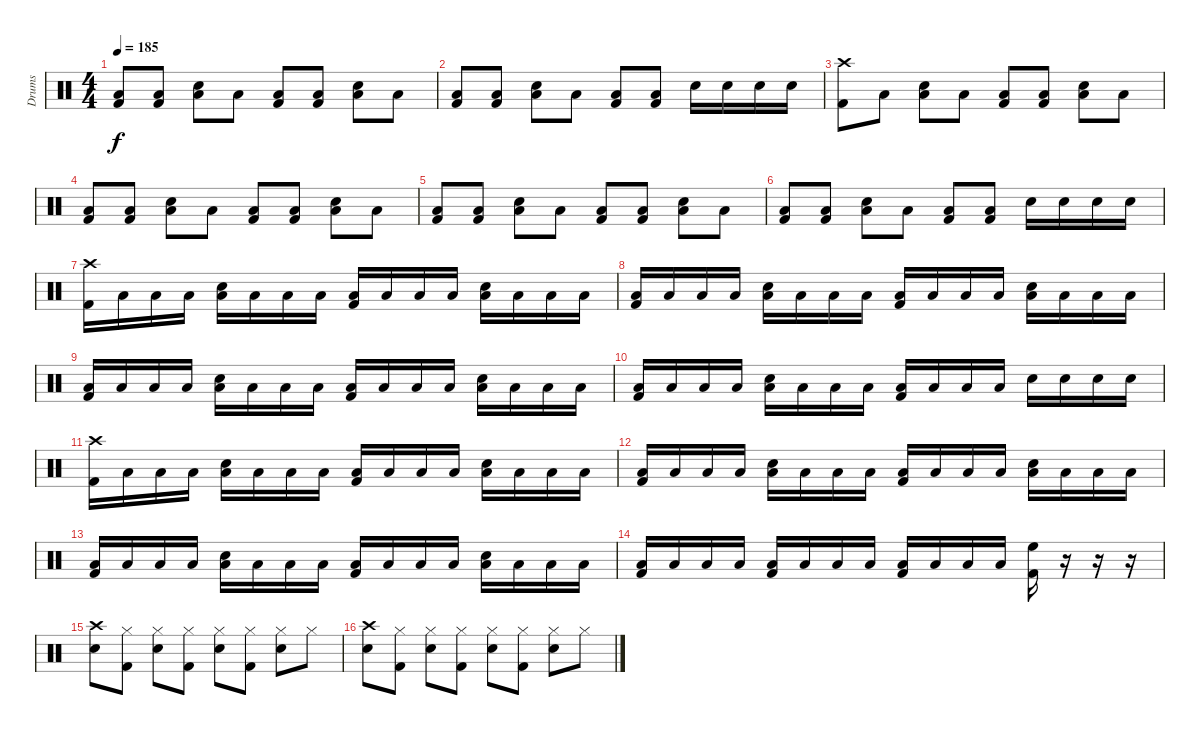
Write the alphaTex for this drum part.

\track ("Drums" "Drums") {instrument percussion}
\staff {score}
\articulation defaults
\ts (4 4)
\tempo 185
\clef neutral
\ks c
("Low Tom (hit)" "Kick (hit) 2").8{dy f} ("Low Tom (hit)" "Kick (hit) 2").8 ("Low Tom (hit)" "Snare (hit) 2").8 "Low Tom (hit)".8 ("Low Tom (hit)" "Kick (hit) 2").8 ("Low Tom (hit)" "Kick (hit) 2").8 ("Low Tom (hit)" "Snare (hit) 2").8 "Low Tom (hit)".8 |
("Low Tom (hit)" "Kick (hit) 2").8 ("Low Tom (hit)" "Kick (hit) 2").8 ("Low Tom (hit)" "Snare (hit) 2").8 "Low Tom (hit)".8 ("Low Tom (hit)" "Kick (hit) 2").8 ("Low Tom (hit)" "Kick (hit) 2").8 "Snare (hit) 2".16 "Snare (hit) 2".16 "Snare (hit) 2".16 "Snare (hit) 2".16 |
("Crash high (hit)" "Kick (hit) 2").8 "Low Tom (hit)".8 ("Low Tom (hit)" "Snare (hit) 2").8 "Low Tom (hit)".8 ("Low Tom (hit)" "Kick (hit) 2").8 ("Low Tom (hit)" "Kick (hit) 2").8 ("Low Tom (hit)" "Snare (hit) 2").8 "Low Tom (hit)".8 |
("Low Tom (hit)" "Kick (hit) 2").8 ("Low Tom (hit)" "Kick (hit) 2").8 ("Low Tom (hit)" "Snare (hit) 2").8 "Low Tom (hit)".8 ("Low Tom (hit)" "Kick (hit) 2").8 ("Low Tom (hit)" "Kick (hit) 2").8 ("Low Tom (hit)" "Snare (hit) 2").8 "Low Tom (hit)".8 |
("Low Tom (hit)" "Kick (hit) 2").8 ("Low Tom (hit)" "Kick (hit) 2").8 ("Low Tom (hit)" "Snare (hit) 2").8 "Low Tom (hit)".8 ("Low Tom (hit)" "Kick (hit) 2").8 ("Low Tom (hit)" "Kick (hit) 2").8 ("Low Tom (hit)" "Snare (hit) 2").8 "Low Tom (hit)".8 |
("Low Tom (hit)" "Kick (hit) 2").8 ("Low Tom (hit)" "Kick (hit) 2").8 ("Low Tom (hit)" "Snare (hit) 2").8 "Low Tom (hit)".8 ("Low Tom (hit)" "Kick (hit) 2").8 ("Low Tom (hit)" "Kick (hit) 2").8 "Snare (hit) 2".16 "Snare (hit) 2".16 "Snare (hit) 2".16 "Snare (hit) 2".16 |
("Crash high (hit)" "Kick (hit) 2").16 "Low Tom (hit)".16 "Low Tom (hit)".16 "Low Tom (hit)".16 ("Low Tom (hit)" "Snare (hit) 2").16 "Low Tom (hit)".16 "Low Tom (hit)".16 "Low Tom (hit)".16 ("Low Tom (hit)" "Kick (hit) 2").16 "Low Tom (hit)".16 "Low Tom (hit)".16 "Low Tom (hit)".16 ("Low Tom (hit)" "Snare (hit) 2").16 "Low Tom (hit)".16 "Low Tom (hit)".16 "Low Tom (hit)".16 |
("Low Tom (hit)" "Kick (hit) 2").16 "Low Tom (hit)".16 "Low Tom (hit)".16 "Low Tom (hit)".16 ("Low Tom (hit)" "Snare (hit) 2").16 "Low Tom (hit)".16 "Low Tom (hit)".16 "Low Tom (hit)".16 ("Low Tom (hit)" "Kick (hit) 2").16 "Low Tom (hit)".16 "Low Tom (hit)".16 "Low Tom (hit)".16 ("Low Tom (hit)" "Snare (hit) 2").16 "Low Tom (hit)".16 "Low Tom (hit)".16 "Low Tom (hit)".16 |
("Low Tom (hit)" "Kick (hit) 2").16 "Low Tom (hit)".16 "Low Tom (hit)".16 "Low Tom (hit)".16 ("Low Tom (hit)" "Snare (hit) 2").16 "Low Tom (hit)".16 "Low Tom (hit)".16 "Low Tom (hit)".16 ("Low Tom (hit)" "Kick (hit) 2").16 "Low Tom (hit)".16 "Low Tom (hit)".16 "Low Tom (hit)".16 ("Low Tom (hit)" "Snare (hit) 2").16 "Low Tom (hit)".16 "Low Tom (hit)".16 "Low Tom (hit)".16 |
("Low Tom (hit)" "Kick (hit) 2").16 "Low Tom (hit)".16 "Low Tom (hit)".16 "Low Tom (hit)".16 ("Low Tom (hit)" "Snare (hit) 2").16 "Low Tom (hit)".16 "Low Tom (hit)".16 "Low Tom (hit)".16 ("Low Tom (hit)" "Kick (hit) 2").16 "Low Tom (hit)".16 "Low Tom (hit)".16 "Low Tom (hit)".16 "Snare (hit) 2".16 "Snare (hit) 2".16 "Snare (hit) 2".16 "Snare (hit) 2".16 |
("Crash high (hit)" "Kick (hit) 2").16 "Low Tom (hit)".16 "Low Tom (hit)".16 "Low Tom (hit)".16 ("Low Tom (hit)" "Snare (hit) 2").16 "Low Tom (hit)".16 "Low Tom (hit)".16 "Low Tom (hit)".16 ("Low Tom (hit)" "Kick (hit) 2").16 "Low Tom (hit)".16 "Low Tom (hit)".16 "Low Tom (hit)".16 ("Low Tom (hit)" "Snare (hit) 2").16 "Low Tom (hit)".16 "Low Tom (hit)".16 "Low Tom (hit)".16 |
("Low Tom (hit)" "Kick (hit) 2").16 "Low Tom (hit)".16 "Low Tom (hit)".16 "Low Tom (hit)".16 ("Low Tom (hit)" "Snare (hit) 2").16 "Low Tom (hit)".16 "Low Tom (hit)".16 "Low Tom (hit)".16 ("Low Tom (hit)" "Kick (hit) 2").16 "Low Tom (hit)".16 "Low Tom (hit)".16 "Low Tom (hit)".16 ("Low Tom (hit)" "Snare (hit) 2").16 "Low Tom (hit)".16 "Low Tom (hit)".16 "Low Tom (hit)".16 |
("Low Tom (hit)" "Kick (hit) 2").16 "Low Tom (hit)".16 "Low Tom (hit)".16 "Low Tom (hit)".16 ("Low Tom (hit)" "Snare (hit) 2").16 "Low Tom (hit)".16 "Low Tom (hit)".16 "Low Tom (hit)".16 ("Low Tom (hit)" "Kick (hit) 2").16 "Low Tom (hit)".16 "Low Tom (hit)".16 "Low Tom (hit)".16 ("Low Tom (hit)" "Snare (hit) 2").16 "Low Tom (hit)".16 "Low Tom (hit)".16 "Low Tom (hit)".16 |
("Low Tom (hit)" "Kick (hit) 2").16 "Low Tom (hit)".16 "Low Tom (hit)".16 "Low Tom (hit)".16 ("Low Tom (hit)" "Kick (hit) 2").16 "Low Tom (hit)".16 "Low Tom (hit)".16 "Low Tom (hit)".16 ("Low Tom (hit)" "Kick (hit) 2").16 "Low Tom (hit)".16 "Low Tom (hit)".16 "Low Tom (hit)".16 ("High Floor Tom (hit)" "Kick (hit) 2").16 r.16 r.16 r.16 |
("Crash high (hit)" "Snare (hit) 2").8 ("Hi-Hat (closed)" "Kick (hit) 2").8 ("Hi-Hat (closed)" "Snare (hit) 2").8 ("Hi-Hat (closed)" "Kick (hit) 2").8 ("Hi-Hat (closed)" "Snare (hit) 2").8 ("Hi-Hat (closed)" "Kick (hit) 2").8 ("Hi-Hat (closed)" "Snare (hit) 2").8 "Hi-Hat (closed)".8 |
("Crash high (hit)" "Snare (hit) 2").8 ("Hi-Hat (closed)" "Kick (hit) 2").8 ("Hi-Hat (closed)" "Snare (hit) 2").8 ("Hi-Hat (closed)" "Kick (hit) 2").8 ("Hi-Hat (closed)" "Snare (hit) 2").8 ("Hi-Hat (closed)" "Kick (hit) 2").8 ("Hi-Hat (closed)" "Snare (hit) 2").8 "Hi-Hat (closed)".8
